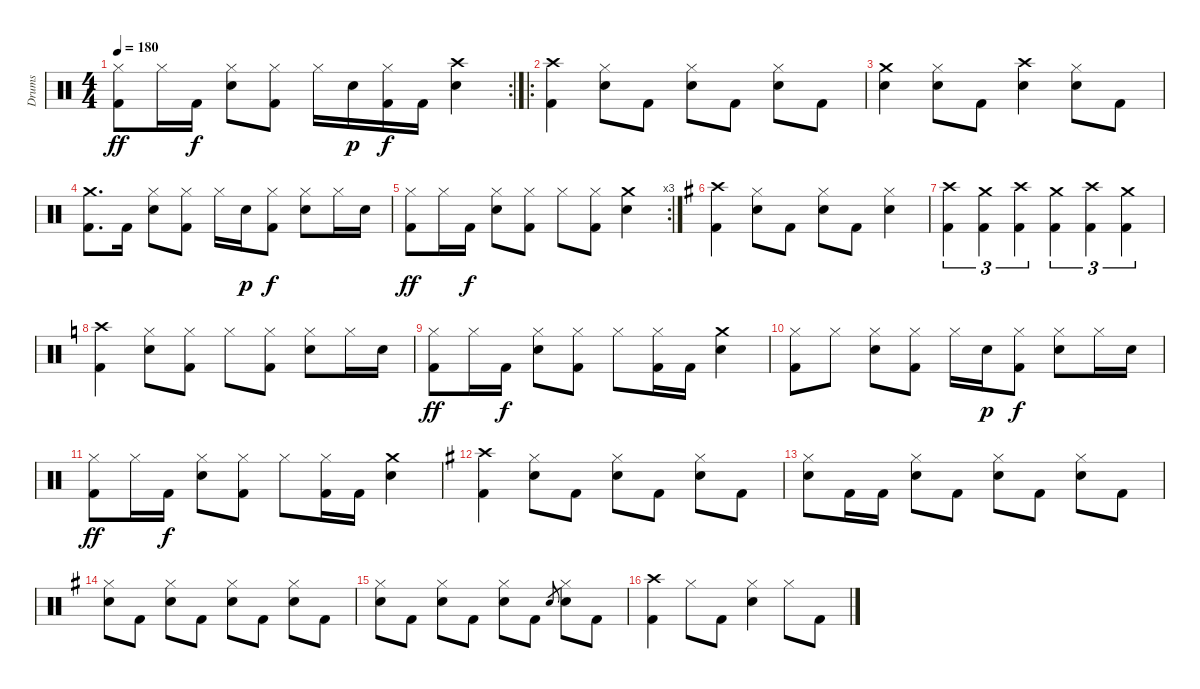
\track ("Drums" "Drums") {instrument percussion}
\staff {score}
\articulation defaults
\rc 2
\ts (4 4)
\tempo 180
\clef neutral
\ks c
("Hi-Hat (closed)" "Kick (hit) 2").8{dy ff} "Hi-Hat (closed)".16 "Kick (hit) 2".16{dy f} ("Hi-Hat (closed)" "Snare (hit) 2").8 ("Hi-Hat (closed)" "Kick (hit) 2").8 "Hi-Hat (closed)".16 "Snare (hit) 2".16{dy p} ("Hi-Hat (closed)" "Kick (hit) 2").16{dy f} "Kick (hit) 2".16 ("Crash high (hit)" "Snare (hit) 2").4 |
\ro
("Crash high (hit)" "Kick (hit) 2").4 ("Hi-Hat (closed)" "Snare (hit) 2").8 "Kick (hit) 2".8 ("Hi-Hat (closed)" "Snare (hit) 2").8 "Kick (hit) 2".8 ("Hi-Hat (closed)" "Snare (hit) 2").8 "Kick (hit) 2".8 |
("Crash medium (hit)" "Snare (hit) 2").4 ("Hi-Hat (closed)" "Snare (hit) 2").8 "Kick (hit) 2".8 ("Crash high (hit)" "Snare (hit) 2").4 ("Hi-Hat (closed)" "Snare (hit) 2").8 "Kick (hit) 2".8 |
("Crash medium (hit)" "Kick (hit) 2").8{d} "Kick (hit) 2".16 ("Hi-Hat (closed)" "Snare (hit) 2").8 ("Hi-Hat (closed)" "Kick (hit) 2").8 "Hi-Hat (closed)".16 "Snare (hit) 2".16{dy p} ("Hi-Hat (closed)" "Kick (hit) 2").8{dy f} ("Hi-Hat (closed)" "Snare (hit) 2").8 "Hi-Hat (closed)".16 "Snare (hit) 2".16 |
\rc 3
("Hi-Hat (closed)" "Kick (hit) 2").8{dy ff} "Hi-Hat (closed)".16 "Kick (hit) 2".16{dy f} ("Hi-Hat (closed)" "Snare (hit) 2").8 ("Hi-Hat (closed)" "Kick (hit) 2").8 "Hi-Hat (closed)".8 ("Hi-Hat (closed)" "Kick (hit) 2").8 ("Crash medium (hit)" "Snare (hit) 2").4 |
\ks g
("Crash high (hit)" "Kick (hit) 2").4 ("Hi-Hat (closed)" "Snare (hit) 2").8 "Kick (hit) 2".8 ("Hi-Hat (closed)" "Snare (hit) 2").8 "Kick (hit) 2".8 ("Hi-Hat (closed)" "Snare (hit) 2").4 |
("Crash high (hit)" "Kick (hit) 2").4{tu (3 2)} ("Crash medium (hit)" "Kick (hit) 2").4{tu (3 2)} ("Crash high (hit)" "Kick (hit) 2").4{tu (3 2)} ("Crash medium (hit)" "Kick (hit) 2").4{tu (3 2)} ("Crash high (hit)" "Kick (hit) 2").4{tu (3 2)} ("Crash medium (hit)" "Kick (hit) 2").4{tu (3 2)} |
\ks c
("Crash high (hit)" "Kick (hit) 2").4 ("Hi-Hat (closed)" "Snare (hit) 2").8 ("Hi-Hat (closed)" "Kick (hit) 2").8 "Hi-Hat (closed)".8 ("Hi-Hat (closed)" "Kick (hit) 2").8 ("Hi-Hat (closed)" "Snare (hit) 2").8 "Hi-Hat (closed)".16 "Snare (hit) 2".16 |
("Hi-Hat (closed)" "Kick (hit) 2").8{dy ff} "Hi-Hat (closed)".16 "Kick (hit) 2".16{dy f} ("Hi-Hat (closed)" "Snare (hit) 2").8 ("Hi-Hat (closed)" "Kick (hit) 2").8 "Hi-Hat (closed)".8 ("Hi-Hat (closed)" "Kick (hit) 2").16 "Kick (hit) 2".16 ("Crash medium (hit)" "Snare (hit) 2").4 |
("Hi-Hat (closed)" "Kick (hit) 2").8 "Hi-Hat (closed)".8 ("Hi-Hat (closed)" "Snare (hit) 2").8 ("Hi-Hat (closed)" "Kick (hit) 2").8 "Hi-Hat (closed)".16 "Snare (hit) 2".16{dy p} ("Hi-Hat (closed)" "Kick (hit) 2").8{dy f} ("Hi-Hat (closed)" "Snare (hit) 2").8 "Hi-Hat (closed)".16 "Snare (hit) 2".16 |
("Hi-Hat (closed)" "Kick (hit) 2").8{dy ff} "Hi-Hat (closed)".16 "Kick (hit) 2".16{dy f} ("Hi-Hat (closed)" "Snare (hit) 2").8 ("Hi-Hat (closed)" "Kick (hit) 2").8 "Hi-Hat (closed)".8 ("Hi-Hat (closed)" "Kick (hit) 2").16 "Kick (hit) 2".16 ("Crash medium (hit)" "Snare (hit) 2").4 |
\ks g
("Crash high (hit)" "Kick (hit) 2").4 ("Hi-Hat (closed)" "Snare (hit) 2").8 "Kick (hit) 2".8 ("Hi-Hat (closed)" "Snare (hit) 2").8 "Kick (hit) 2".8 ("Hi-Hat (closed)" "Snare (hit) 2").8 "Kick (hit) 2".8 |
("Hi-Hat (closed)" "Snare (hit) 2").8 "Kick (hit) 2".16 "Kick (hit) 2".16 ("Hi-Hat (closed)" "Snare (hit) 2").8 "Kick (hit) 2".8 ("Hi-Hat (closed)" "Snare (hit) 2").8 "Kick (hit) 2".8 ("Hi-Hat (closed)" "Snare (hit) 2").8 "Kick (hit) 2".8 |
("Hi-Hat (closed)" "Snare (hit) 2").8 "Kick (hit) 2".8 ("Hi-Hat (closed)" "Snare (hit) 2").8 "Kick (hit) 2".8 ("Hi-Hat (closed)" "Snare (hit) 2").8 "Kick (hit) 2".8 ("Hi-Hat (closed)" "Snare (hit) 2").8 "Kick (hit) 2".8 |
("Hi-Hat (closed)" "Snare (hit) 2").8 "Kick (hit) 2".8 ("Hi-Hat (closed)" "Snare (hit) 2").8 "Kick (hit) 2".8 ("Hi-Hat (closed)" "Snare (hit) 2").8 "Kick (hit) 2".8 "Snare (hit) 2".8{gr} ("Hi-Hat (closed)" "Snare (hit) 2").8 "Kick (hit) 2".8 |
("Crash high (hit)" "Kick (hit) 2").4 "Hi-Hat (closed)".8 "Kick (hit) 2".8 ("Hi-Hat (closed)" "Snare (hit) 2").4 "Hi-Hat (closed)".8 "Kick (hit) 2".8
